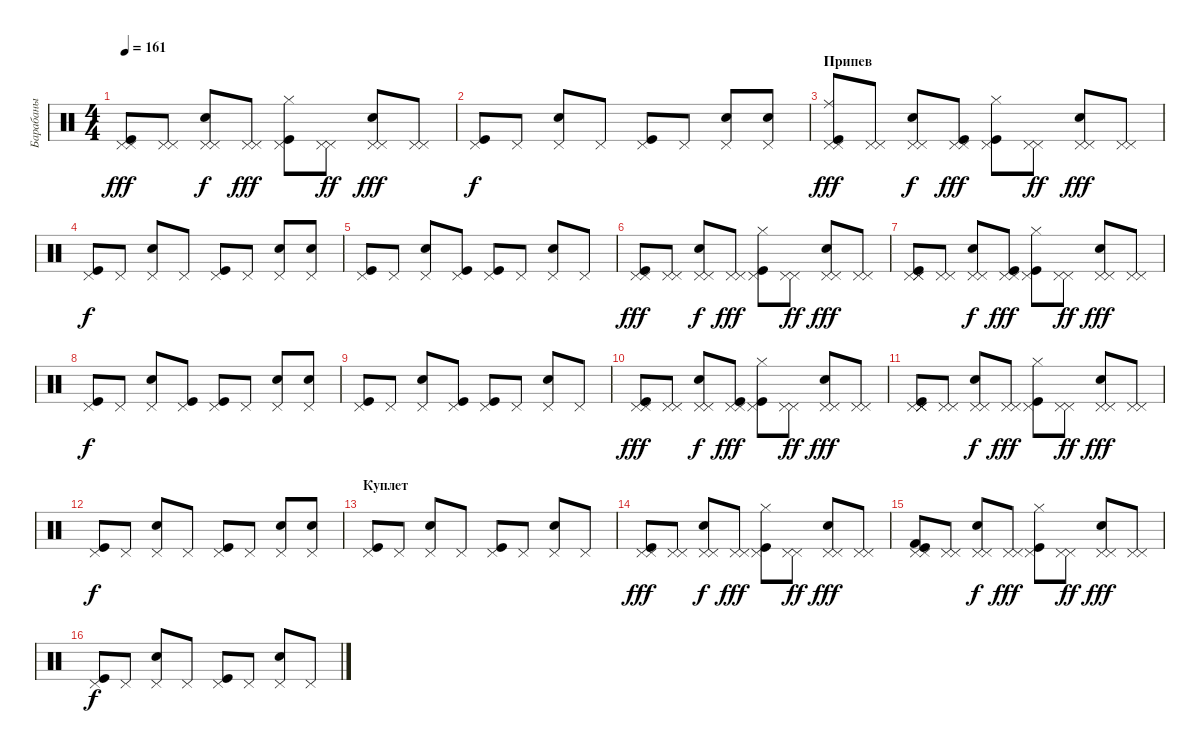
\track ("Барабаны" "Барабаны") {instrument percussion}
\staff {score}
\articulation defaults
\ts (4 4)
\tempo 161
\clef neutral
\ks c
("Pedal Hi-Hat (hit)" "Kick (hit)" "Pedal Hi-Hat (hit)").8{dy fff} ("Pedal Hi-Hat (hit)" "Pedal Hi-Hat (hit)").8 ("Snare (hit) 2" "Pedal Hi-Hat (hit)" "Pedal Hi-Hat (hit)").8{dy f} ("Pedal Hi-Hat (hit)" "Pedal Hi-Hat (hit)").8{dy fff} ("Kick (hit)" "Pedal Hi-Hat (hit)" "Hi-Hat (closed)").8 ("Pedal Hi-Hat (hit)" "Pedal Hi-Hat (hit)").8{dy ff} ("Snare (hit) 2" "Pedal Hi-Hat (hit)" "Pedal Hi-Hat (hit)").8{dy fff} ("Pedal Hi-Hat (hit)" "Pedal Hi-Hat (hit)").8 |
("Kick (hit)" "Pedal Hi-Hat (hit)").8{dy f} "Pedal Hi-Hat (hit)".8 ("Snare (hit) 2" "Pedal Hi-Hat (hit)").8 "Pedal Hi-Hat (hit)".8 ("Kick (hit)" "Pedal Hi-Hat (hit)").8 "Pedal Hi-Hat (hit)".8 ("Snare (hit) 2" "Pedal Hi-Hat (hit)").8 ("Snare (hit) 2" "Pedal Hi-Hat (hit)").8 |
\section ("" "Припев")
("Ride (middle)" "Pedal Hi-Hat (hit)" "Kick (hit)" "Pedal Hi-Hat (hit)").8{dy fff} ("Pedal Hi-Hat (hit)" "Pedal Hi-Hat (hit)").8 ("Snare (hit) 2" "Pedal Hi-Hat (hit)" "Pedal Hi-Hat (hit)").8{dy f} ("Kick (hit)" "Pedal Hi-Hat (hit)" "Pedal Hi-Hat (hit)").8{dy fff} ("Kick (hit)" "Pedal Hi-Hat (hit)" "Hi-Hat (closed)").8 ("Pedal Hi-Hat (hit)" "Pedal Hi-Hat (hit)").8{dy ff} ("Snare (hit) 2" "Pedal Hi-Hat (hit)" "Pedal Hi-Hat (hit)").8{dy fff} ("Pedal Hi-Hat (hit)" "Pedal Hi-Hat (hit)").8 |
("Pedal Hi-Hat (hit)" "Kick (hit)").8{dy f} "Pedal Hi-Hat (hit)".8 ("Snare (hit) 2" "Pedal Hi-Hat (hit)").8 "Pedal Hi-Hat (hit)".8 ("Kick (hit)" "Pedal Hi-Hat (hit)").8 "Pedal Hi-Hat (hit)".8 ("Snare (hit) 2" "Pedal Hi-Hat (hit)").8 ("Snare (hit) 2" "Pedal Hi-Hat (hit)").8 |
("Kick (hit)" "Pedal Hi-Hat (hit)").8 "Pedal Hi-Hat (hit)".8 ("Snare (hit) 2" "Pedal Hi-Hat (hit)").8 ("Kick (hit)" "Pedal Hi-Hat (hit)").8 ("Kick (hit)" "Pedal Hi-Hat (hit)").8 "Pedal Hi-Hat (hit)".8 ("Snare (hit) 2" "Pedal Hi-Hat (hit)").8 "Pedal Hi-Hat (hit)".8 |
("Pedal Hi-Hat (hit)" "Kick (hit)" "Pedal Hi-Hat (hit)").8{dy fff} ("Pedal Hi-Hat (hit)" "Pedal Hi-Hat (hit)").8 ("Snare (hit) 2" "Pedal Hi-Hat (hit)" "Pedal Hi-Hat (hit)").8{dy f} ("Pedal Hi-Hat (hit)" "Pedal Hi-Hat (hit)").8{dy fff} ("Kick (hit)" "Hi-Hat (closed)" "Pedal Hi-Hat (hit)").8 ("Pedal Hi-Hat (hit)" "Pedal Hi-Hat (hit)").8{dy ff} ("Snare (hit) 2" "Pedal Hi-Hat (hit)" "Pedal Hi-Hat (hit)").8{dy fff} ("Pedal Hi-Hat (hit)" "Pedal Hi-Hat (hit)").8 |
("Pedal Hi-Hat (hit)" "Kick (hit)" "Pedal Hi-Hat (hit)" "Pedal Hi-Hat (hit)").8 ("Pedal Hi-Hat (hit)" "Pedal Hi-Hat (hit)").8 ("Snare (hit) 2" "Pedal Hi-Hat (hit)" "Pedal Hi-Hat (hit)").8{dy f} ("Kick (hit)" "Pedal Hi-Hat (hit)" "Pedal Hi-Hat (hit)").8{dy fff} ("Kick (hit)" "Pedal Hi-Hat (hit)" "Hi-Hat (closed)").8 ("Pedal Hi-Hat (hit)" "Pedal Hi-Hat (hit)").8{dy ff} ("Snare (hit) 2" "Pedal Hi-Hat (hit)" "Pedal Hi-Hat (hit)").8{dy fff} ("Pedal Hi-Hat (hit)" "Pedal Hi-Hat (hit)").8 |
("Kick (hit)" "Pedal Hi-Hat (hit)").8{dy f} "Pedal Hi-Hat (hit)".8 ("Snare (hit) 2" "Pedal Hi-Hat (hit)").8 ("Kick (hit)" "Pedal Hi-Hat (hit)").8 ("Kick (hit)" "Pedal Hi-Hat (hit)").8 "Pedal Hi-Hat (hit)".8 ("Snare (hit) 2" "Pedal Hi-Hat (hit)").8 ("Snare (hit) 2" "Pedal Hi-Hat (hit)").8 |
("Kick (hit)" "Pedal Hi-Hat (hit)").8 "Pedal Hi-Hat (hit)".8 ("Snare (hit) 2" "Pedal Hi-Hat (hit)").8 ("Kick (hit)" "Pedal Hi-Hat (hit)").8 ("Kick (hit)" "Pedal Hi-Hat (hit)").8 "Pedal Hi-Hat (hit)".8 ("Snare (hit) 2" "Pedal Hi-Hat (hit)").8 "Pedal Hi-Hat (hit)".8 |
("Pedal Hi-Hat (hit)" "Kick (hit)" "Pedal Hi-Hat (hit)").8{dy fff} ("Pedal Hi-Hat (hit)" "Pedal Hi-Hat (hit)").8 ("Snare (hit) 2" "Pedal Hi-Hat (hit)" "Pedal Hi-Hat (hit)").8{dy f} ("Kick (hit)" "Pedal Hi-Hat (hit)" "Pedal Hi-Hat (hit)").8{dy fff} ("Kick (hit)" "Hi-Hat (closed)" "Pedal Hi-Hat (hit)").8 ("Pedal Hi-Hat (hit)" "Pedal Hi-Hat (hit)").8{dy ff} ("Snare (hit) 2" "Pedal Hi-Hat (hit)" "Pedal Hi-Hat (hit)").8{dy fff} ("Pedal Hi-Hat (hit)" "Pedal Hi-Hat (hit)").8 |
("Pedal Hi-Hat (hit)" "Kick (hit)" "Pedal Hi-Hat (hit)" "Pedal Hi-Hat (hit)" "Pedal Hi-Hat (hit)").8 ("Pedal Hi-Hat (hit)" "Pedal Hi-Hat (hit)").8 ("Snare (hit) 2" "Pedal Hi-Hat (hit)" "Pedal Hi-Hat (hit)").8{dy f} ("Pedal Hi-Hat (hit)" "Pedal Hi-Hat (hit)").8{dy fff} ("Kick (hit)" "Pedal Hi-Hat (hit)" "Hi-Hat (closed)").8 ("Pedal Hi-Hat (hit)" "Pedal Hi-Hat (hit)").8{dy ff} ("Snare (hit) 2" "Pedal Hi-Hat (hit)" "Pedal Hi-Hat (hit)").8{dy fff} ("Pedal Hi-Hat (hit)" "Pedal Hi-Hat (hit)").8 |
("Pedal Hi-Hat (hit)" "Kick (hit)").8{dy f} "Pedal Hi-Hat (hit)".8 ("Snare (hit) 2" "Pedal Hi-Hat (hit)").8 "Pedal Hi-Hat (hit)".8 ("Kick (hit)" "Pedal Hi-Hat (hit)").8 "Pedal Hi-Hat (hit)".8 ("Snare (hit) 2" "Pedal Hi-Hat (hit)").8 ("Snare (hit) 2" "Pedal Hi-Hat (hit)").8 |
\section ("" "Куплет")
("Kick (hit)" "Pedal Hi-Hat (hit)").8 "Pedal Hi-Hat (hit)".8 ("Snare (hit) 2" "Pedal Hi-Hat (hit)").8 "Pedal Hi-Hat (hit)".8 ("Kick (hit)" "Pedal Hi-Hat (hit)").8 "Pedal Hi-Hat (hit)".8 ("Snare (hit) 2" "Pedal Hi-Hat (hit)").8 "Pedal Hi-Hat (hit)".8 |
("Pedal Hi-Hat (hit)" "Kick (hit)" "Pedal Hi-Hat (hit)").8{dy fff} ("Pedal Hi-Hat (hit)" "Pedal Hi-Hat (hit)").8 ("Snare (hit) 2" "Pedal Hi-Hat (hit)" "Pedal Hi-Hat (hit)").8{dy f} ("Pedal Hi-Hat (hit)" "Pedal Hi-Hat (hit)").8{dy fff} ("Kick (hit)" "Hi-Hat (closed)" "Pedal Hi-Hat (hit)").8 ("Pedal Hi-Hat (hit)" "Pedal Hi-Hat (hit)").8{dy ff} ("Snare (hit) 2" "Pedal Hi-Hat (hit)" "Pedal Hi-Hat (hit)").8{dy fff} ("Pedal Hi-Hat (hit)" "Pedal Hi-Hat (hit)").8 |
("Kick (hit) 2" "Pedal Hi-Hat (hit)" "Pedal Hi-Hat (hit)" "Kick (hit)").8 ("Pedal Hi-Hat (hit)" "Pedal Hi-Hat (hit)").8 ("Snare (hit) 2" "Pedal Hi-Hat (hit)" "Pedal Hi-Hat (hit)").8{dy f} ("Pedal Hi-Hat (hit)" "Pedal Hi-Hat (hit)").8{dy fff} ("Kick (hit)" "Pedal Hi-Hat (hit)" "Hi-Hat (closed)").8 ("Pedal Hi-Hat (hit)" "Pedal Hi-Hat (hit)").8{dy ff} ("Snare (hit) 2" "Pedal Hi-Hat (hit)" "Pedal Hi-Hat (hit)").8{dy fff} ("Pedal Hi-Hat (hit)" "Pedal Hi-Hat (hit)").8 |
("Pedal Hi-Hat (hit)" "Kick (hit)").8{dy f} "Pedal Hi-Hat (hit)".8 ("Snare (hit) 2" "Pedal Hi-Hat (hit)").8 "Pedal Hi-Hat (hit)".8 ("Kick (hit)" "Pedal Hi-Hat (hit)").8 "Pedal Hi-Hat (hit)".8 ("Snare (hit) 2" "Pedal Hi-Hat (hit)").8 "Pedal Hi-Hat (hit)".8
